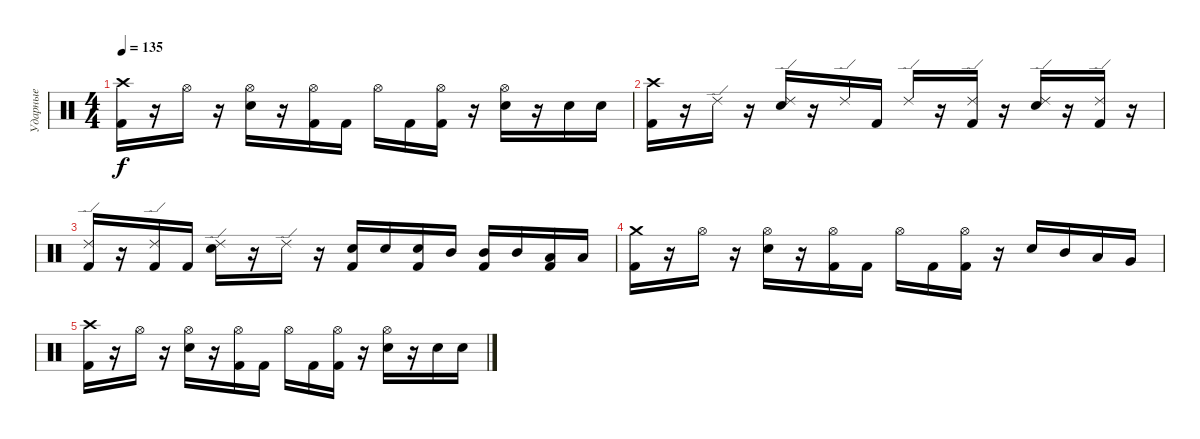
\track ("Ударные" "Ударные") {instrument percussion}
\staff {score}
\articulation defaults
\ts (4 4)
\tempo 135
\clef neutral
\ks c
("Crash high (hit)" "Kick (hit) 2").16{dy f} r.16 "Hi-Hat (open)".16 r.16 ("Hi-Hat (open)" "Electric Snare (hit)").16 r.16 ("Hi-Hat (open)" "Kick (hit) 2").16 "Kick (hit) 2".16 "Hi-Hat (open)".16 "Kick (hit) 2".16 ("Hi-Hat (open)" "Kick (hit) 2").16 r.16 ("Hi-Hat (open)" "Electric Snare (hit)").16 r.16 "Electric Snare (hit)".16 "Electric Snare (hit)".16 |
("Crash high (hit)" "Kick (hit) 2").16 r.16 "Ride (edge) 2".16 r.16 ("Ride (edge) 2" "Electric Snare (hit)").16 r.16 "Ride (edge) 2".16 "Kick (hit) 2".16 "Ride (edge) 2".16 r.16 ("Ride (edge) 2" "Kick (hit) 2").16 r.16 ("Ride (edge) 2" "Electric Snare (hit)").16 r.16 ("Ride (edge) 2" "Kick (hit) 2").16 r.16 |
("Ride (edge) 2" "Kick (hit) 2").16 r.16 ("Ride (edge) 2" "Kick (hit) 2").16 "Kick (hit) 2".16 ("Ride (edge) 2" "Electric Snare (hit)").16 r.16 "Ride (edge) 2".16 r.16 ("Electric Snare (hit)" "Kick (hit) 2").16 "Electric Snare (hit)".16 ("Electric Snare (hit)" "Kick (hit) 2").16 "Mid Tom (hit)".16 ("Mid Tom (hit)" "Kick (hit) 2").16 "Mid Tom (hit)".16 ("Low Tom (hit)" "Kick (hit) 2").16 "Low Tom (hit)".16 |
("Crash medium (hit)" "Kick (hit) 2").16 r.16 "Hi-Hat (open)".16 r.16 ("Hi-Hat (open)" "Electric Snare (hit)").16 r.16 ("Hi-Hat (open)" "Kick (hit) 2").16 "Kick (hit) 2".16 "Hi-Hat (open)".16 "Kick (hit) 2".16 ("Hi-Hat (open)" "Kick (hit) 2").16 r.16 "Electric Snare (hit)".16 "Mid Tom (hit)".16 "Low Tom (hit)".16 "Very Low Tom (hit)".16 |
("Crash high (hit)" "Kick (hit) 2").16 r.16 "Hi-Hat (open)".16 r.16 ("Hi-Hat (open)" "Electric Snare (hit)").16 r.16 ("Hi-Hat (open)" "Kick (hit) 2").16 "Kick (hit) 2".16 "Hi-Hat (open)".16 "Kick (hit) 2".16 ("Hi-Hat (open)" "Kick (hit) 2").16 r.16 ("Hi-Hat (open)" "Electric Snare (hit)").16 r.16 "Electric Snare (hit)".16 "Electric Snare (hit)".16
